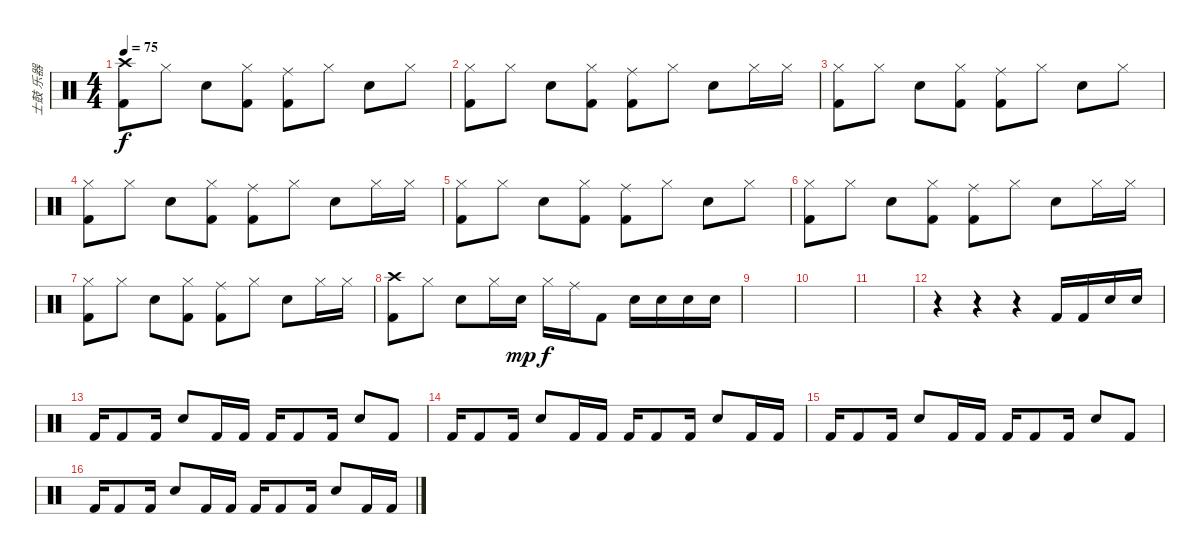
\track ("士鼓 乐器" "士鼓 乐器") {instrument percussion}
\staff {score}
\articulation defaults
\ts (4 4)
\tempo 75
\clef neutral
\ks c
("Crash high (hit)" "Kick (hit) 2").8{dy f} "Hi-Hat (closed)".8 "Snare (hit) 2".8 ("Hi-Hat (closed)" "Kick (hit) 2").8 ("Ride (middle)" "Kick (hit) 2").8 "Hi-Hat (closed)".8 "Snare (hit) 2".8 "Hi-Hat (closed)".8 |
("Hi-Hat (closed)" "Kick (hit) 2").8 "Hi-Hat (closed)".8 "Snare (hit) 2".8 ("Hi-Hat (closed)" "Kick (hit) 2").8 ("Ride (middle)" "Kick (hit) 2").8 "Hi-Hat (closed)".8 "Snare (hit) 2".8 "Hi-Hat (closed)".16 "Hi-Hat (closed)".16 |
("Hi-Hat (closed)" "Kick (hit) 2").8 "Hi-Hat (closed)".8 "Snare (hit) 2".8 ("Hi-Hat (closed)" "Kick (hit) 2").8 ("Ride (middle)" "Kick (hit) 2").8 "Hi-Hat (closed)".8 "Snare (hit) 2".8 "Hi-Hat (closed)".8 |
("Hi-Hat (closed)" "Kick (hit) 2").8 "Hi-Hat (closed)".8 "Snare (hit) 2".8 ("Hi-Hat (closed)" "Kick (hit) 2").8 ("Ride (middle)" "Kick (hit) 2").8 "Hi-Hat (closed)".8 "Snare (hit) 2".8 "Hi-Hat (closed)".16 "Hi-Hat (closed)".16 |
("Hi-Hat (closed)" "Kick (hit) 2").8 "Hi-Hat (closed)".8 "Snare (hit) 2".8 ("Hi-Hat (closed)" "Kick (hit) 2").8 ("Ride (middle)" "Kick (hit) 2").8 "Hi-Hat (closed)".8 "Snare (hit) 2".8 "Hi-Hat (closed)".8 |
("Hi-Hat (closed)" "Kick (hit) 2").8 "Hi-Hat (closed)".8 "Snare (hit) 2".8 ("Hi-Hat (closed)" "Kick (hit) 2").8 ("Ride (middle)" "Kick (hit) 2").8 "Hi-Hat (closed)".8 "Snare (hit) 2".8 "Hi-Hat (closed)".16 "Hi-Hat (closed)".16 |
("Hi-Hat (closed)" "Kick (hit) 2").8 "Hi-Hat (closed)".8 "Snare (hit) 2".8 ("Hi-Hat (closed)" "Kick (hit) 2").8 ("Ride (middle)" "Kick (hit) 2").8 "Hi-Hat (closed)".8 "Snare (hit) 2".8 "Hi-Hat (closed)".16 "Hi-Hat (closed)".16 |
("Crash high (hit)" "Kick (hit) 2").8 "Hi-Hat (closed)".8 "Snare (hit) 2".8 "Hi-Hat (closed)".16 "Snare (hit) 2".16{dy mp} "Hi-Hat (closed)".16{dy f} "Ride (middle)".16 "Kick (hit) 2".8 "Snare (hit) 2".16 "Snare (hit) 2".16 "Snare (hit) 2".16 "Snare (hit) 2".16 |
|
|
|
r.4 r.4 r.4 "Kick (hit) 2".16 "Kick (hit) 2".16 "Snare (hit) 2".16 "Snare (hit) 2".16 |
"Kick (hit) 2".16{volume 16} "Kick (hit) 2".8 "Kick (hit) 2".16 "Snare (hit) 2".8 "Kick (hit) 2".16 "Kick (hit) 2".16 "Kick (hit) 2".16 "Kick (hit) 2".8 "Kick (hit) 2".16 "Snare (hit) 2".8 "Kick (hit) 2".8 |
"Kick (hit) 2".16 "Kick (hit) 2".8 "Kick (hit) 2".16 "Snare (hit) 2".8 "Kick (hit) 2".16 "Kick (hit) 2".16 "Kick (hit) 2".16 "Kick (hit) 2".8 "Kick (hit) 2".16 "Snare (hit) 2".8 "Kick (hit) 2".16 "Kick (hit) 2".16 |
"Kick (hit) 2".16 "Kick (hit) 2".8 "Kick (hit) 2".16 "Snare (hit) 2".8 "Kick (hit) 2".16 "Kick (hit) 2".16 "Kick (hit) 2".16 "Kick (hit) 2".8 "Kick (hit) 2".16 "Snare (hit) 2".8 "Kick (hit) 2".8 |
"Kick (hit) 2".16 "Kick (hit) 2".8 "Kick (hit) 2".16 "Snare (hit) 2".8 "Kick (hit) 2".16 "Kick (hit) 2".16 "Kick (hit) 2".16 "Kick (hit) 2".8 "Kick (hit) 2".16 "Snare (hit) 2".8 "Kick (hit) 2".16 "Kick (hit) 2".16
